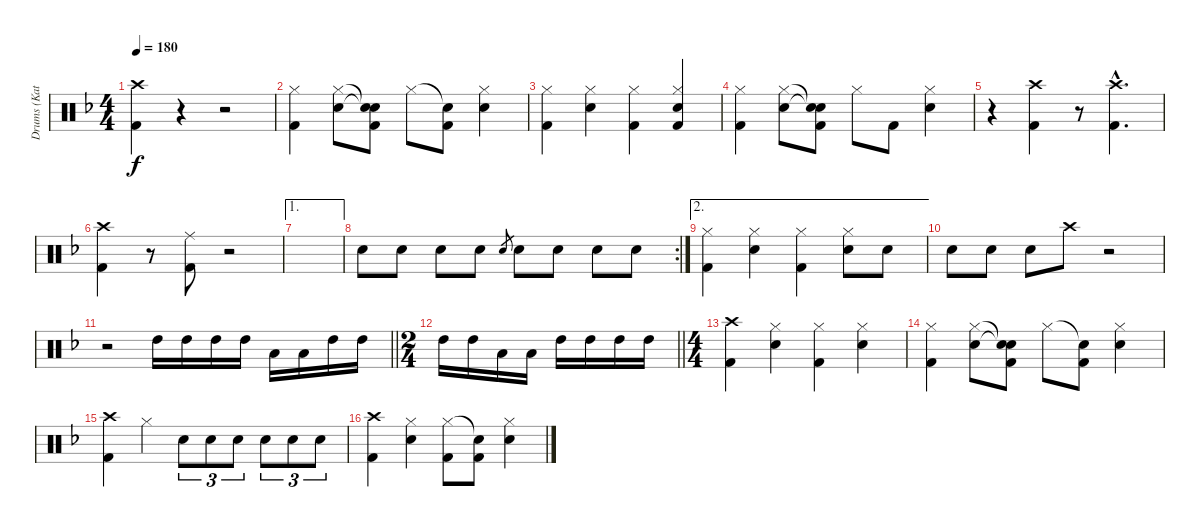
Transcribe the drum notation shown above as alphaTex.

\track ("Drums (Katsuji)" "Drums (Kat") {instrument percussion}
\staff {score}
\articulation defaults
\ts (4 4)
\tempo 180
\clef neutral
\ks f
("Crash high (hit)" "Kick (hit) 2").4{dy f} r.4 r.2 |
("Hi-Hat (closed)" "Kick (hit) 2").4 ("Hi-Hat (closed)" "Snare (hit) 2").8 ("Snare (hit)"{t} "Snare (hit)"{t} "Kick (hit) 2").8 "Hi-Hat (closed)".8 ("Snare (hit)"{t} "Kick (hit) 2").8 ("Hi-Hat (closed)" "Snare (hit) 2").4 |
("Hi-Hat (closed)" "Kick (hit) 2").4 ("Hi-Hat (closed)" "Snare (hit) 2").4 ("Hi-Hat (closed)" "Kick (hit) 2").4 ("Hi-Hat (closed)" "Snare (hit) 2" "Kick (hit) 2").4 |
("Hi-Hat (closed)" "Kick (hit) 2").4 ("Hi-Hat (closed)" "Snare (hit) 2").8 ("Snare (hit)"{t} "Snare (hit)"{t} "Kick (hit) 2").8 "Hi-Hat (closed)".8 "Kick (hit) 2".8 ("Hi-Hat (closed)" "Snare (hit) 2").4 |
r.4 ("Crash high (hit)" "Kick (hit) 2").4 r.8 ("Crash high (hit)"{hac} "Kick (hit) 2"{hac}).4{d} |
("Crash high (hit)" "Kick (hit) 2").4 r.8 ("Ride (middle)" "Kick (hit) 2").8 r.2 |
\ae 1
|
\rc 2 "Snare (hit) 2".8 "Snare (hit) 2".8 "Snare (hit) 2".8 "Snare (hit) 2".8 "Snare (hit) 2".8{gr} "Snare (hit) 2".8 "Snare (hit) 2".8 "Snare (hit) 2".8 "Snare (hit) 2".8
|
\ae 2
("Hi-Hat (closed)" "Kick (hit) 2").4 ("Hi-Hat (closed)" "Snare (hit) 2").4 ("Hi-Hat (closed)" "Kick (hit) 2").4 ("Hi-Hat (closed)" "Snare (hit) 2").8 "Snare (hit) 2".8 |
"Snare (hit) 2".8 "Snare (hit) 2".8 "Snare (hit) 2".8 "Crash high (hit)".8 r.2 |
\barLineRight lightlight
r.2 "High Tom (hit)".16 "High Tom (hit)".16 "High Tom (hit)".16 "High Tom (hit)".16 "Low Tom (hit)".16 "Low Tom (hit)".16 "High Tom (hit)".16 "High Tom (hit)".16 |
\ts (2 4)
\barLineRight lightlight "High Tom (hit)".16 "High Tom (hit)".16 "Low Tom (hit)".16 "Low Tom (hit)".16 "High Tom (hit)".16 "High Tom (hit)".16 "High Tom (hit)".16 "High Tom (hit)".16
|
\ts (4 4)
("Crash high (hit)" "Kick (hit) 2").4 ("Hi-Hat (closed)" "Snare (hit) 2").4 ("Hi-Hat (closed)" "Kick (hit) 2").4 ("Hi-Hat (closed)" "Snare (hit) 2").4 |
("Hi-Hat (closed)" "Kick (hit) 2").4 ("Hi-Hat (closed)" "Snare (hit) 2").8 ("Snare (hit)"{t} "Snare (hit)"{t} "Kick (hit) 2").8 "Hi-Hat (closed)".8 ("Snare (hit)"{t} "Kick (hit) 2").8 ("Hi-Hat (closed)" "Snare (hit) 2").4 |
("Crash high (hit)" "Kick (hit) 2").4 "Hi-Hat (closed)".4 "Snare (hit) 2".8{tu (3 2)} "Snare (hit) 2".8{tu (3 2)} "Snare (hit) 2".8{tu (3 2)} "Snare (hit) 2".8{tu (3 2)} "Snare (hit) 2".8{tu (3 2)} "Snare (hit) 2".8{tu (3 2)} |
("Crash high (hit)" "Kick (hit) 2").4 ("Hi-Hat (closed)" "Snare (hit) 2").4 ("Hi-Hat (closed)" "Kick (hit) 2").8 ("Snare (hit)"{t} "Kick (hit) 2").8 ("Hi-Hat (closed)" "Snare (hit) 2").4
